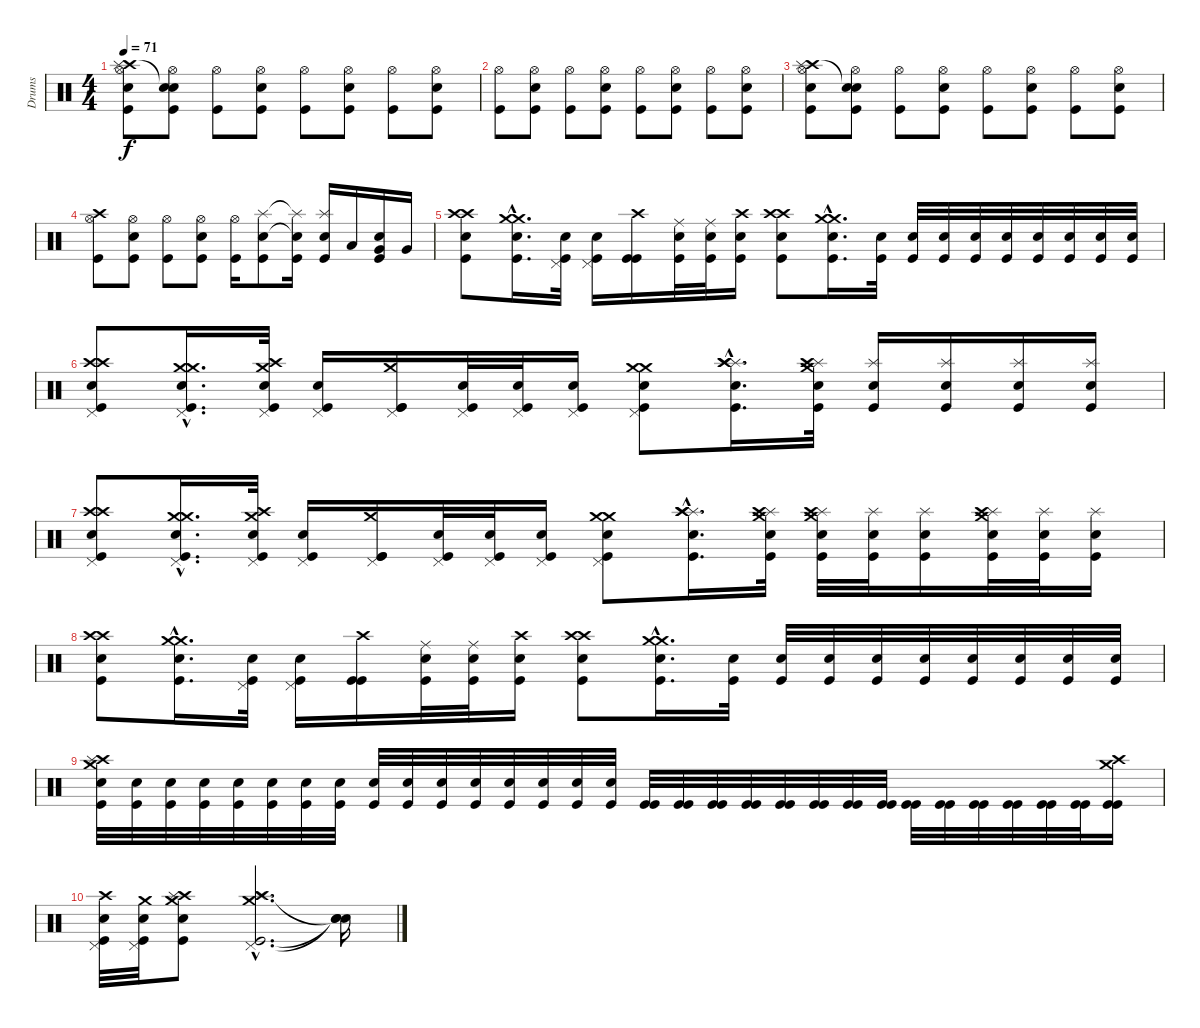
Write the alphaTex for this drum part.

\track ("Drums" "Drums") {instrument percussion}
\staff {score}
\articulation defaults
\ts (4 4)
\tempo 71
\clef neutral
\ks c
("Snare (hit) 2" "Hi-Hat (open)" "Kick (hit)" "Crash high (hit)" "Splash (hit)").8{dy f} ("Snare (hit) 2" "Hi-Hat (open)" "Kick (hit)" "Snare (hit)"{t}).8 ("Hi-Hat (open)" "Kick (hit)").8 ("Electric Snare (hit)" "Hi-Hat (open)" "Kick (hit)").8 ("Hi-Hat (open)" "Kick (hit)").8 ("Snare (hit) 2" "Hi-Hat (open)" "Kick (hit)").8 ("Hi-Hat (open)" "Kick (hit)").8 ("Electric Snare (hit)" "Hi-Hat (open)" "Kick (hit)").8 |
("Hi-Hat (open)" "Kick (hit)").8 ("Snare (hit) 2" "Hi-Hat (open)" "Kick (hit)").8 ("Hi-Hat (open)" "Kick (hit)").8 ("Electric Snare (hit)" "Hi-Hat (open)" "Kick (hit)").8 ("Hi-Hat (open)" "Kick (hit)").8 ("Snare (hit) 2" "Hi-Hat (open)" "Kick (hit)").8 ("Hi-Hat (open)" "Kick (hit)").8 ("Electric Snare (hit)" "Hi-Hat (open)" "Kick (hit)").8 |
("Snare (hit) 2" "Hi-Hat (open)" "Kick (hit)" "Crash high (hit)" "Splash (hit)").8 ("Snare (hit) 2" "Hi-Hat (open)" "Kick (hit)" "Snare (hit)"{t}).8 ("Hi-Hat (open)" "Kick (hit)").8 ("Electric Snare (hit)" "Hi-Hat (open)" "Kick (hit)").8 ("Hi-Hat (open)" "Kick (hit)").8 ("Snare (hit) 2" "Hi-Hat (open)" "Kick (hit)").8 ("Hi-Hat (open)" "Kick (hit)").8 ("Electric Snare (hit)" "Hi-Hat (open)" "Kick (hit)").8 |
("Hi-Hat (open)" "Kick (hit)" "Crash high (hit)").8 ("Snare (hit) 2" "Hi-Hat (open)" "Kick (hit)").8 ("Hi-Hat (open)" "Kick (hit)").8 ("Electric Snare (hit)" "Hi-Hat (open)" "Kick (hit)").8 ("Hi-Hat (open)" "Kick (hit)").16 ("Snare (hit) 2" "Splash (hit)" "Kick (hit)").8 ("Snare (hit) 2"{t} "Splash (hit)"{t} "Kick (hit)").16 ("Electric Snare (hit)" "Splash (hit)" "Kick (hit)").16 "Low Floor Tom (hit)".16 ("Electric Snare (hit)" "Kick (hit)" "Very Low Tom (hit)").16 "Very Low Tom (hit)".16 |
("Electric Snare (hit)" "Kick (hit)" "Crash high (hit)" "Crash high (hit)").8 ("Electric Snare (hit)"{hac} "Kick (hit)"{hac} "Crash medium (hit)"{hac} "Crash medium (hit)"{hac}).16{d} ("Electric Snare (hit)" "Kick (hit)" "Pedal Hi-Hat (hit)").32 ("Electric Snare (hit)" "Kick (hit)" "Pedal Hi-Hat (hit)").16 ("Kick (hit)" "Kick (hit)" "Crash high (hit)").16 ("Electric Snare (hit)" "Kick (hit)" "Ride (middle)").32 ("Electric Snare (hit)" "Kick (hit)" "Ride (middle)").32 ("Electric Snare (hit)" "Kick (hit)" "Crash high (hit)").16 ("Electric Snare (hit)" "Kick (hit)" "Crash high (hit)" "Crash high (hit)").8 ("Electric Snare (hit)"{hac} "Kick (hit)"{hac} "Crash medium (hit)"{hac} "Crash medium (hit)"{hac}).16{d} ("Electric Snare (hit)" "Kick (hit)").32 ("Electric Snare (hit)" "Kick (hit)").32 ("Electric Snare (hit)" "Kick (hit)").32 ("Electric Snare (hit)" "Kick (hit)").32 ("Electric Snare (hit)" "Kick (hit)").32 ("Electric Snare (hit)" "Kick (hit)").32 ("Electric Snare (hit)" "Kick (hit)").32 ("Electric Snare (hit)" "Kick (hit)").32 ("Electric Snare (hit)" "Kick (hit)").32 |
("Electric Snare (hit)" "Kick (hit)" "Pedal Hi-Hat (hit)" "Crash high (hit)" "Crash high (hit)").8 ("Electric Snare (hit)"{hac} "Kick (hit)"{hac} "Pedal Hi-Hat (hit)"{hac} "Crash medium (hit)"{hac} "Crash medium (hit)"{hac}).16{d} ("Electric Snare (hit)" "Kick (hit)" "Pedal Hi-Hat (hit)" "Crash high (hit)" "Crash medium (hit)").32 ("Electric Snare (hit)" "Kick (hit)" "Pedal Hi-Hat (hit)").16 ("Kick (hit)" "Kick (hit)" "Pedal Hi-Hat (hit)" "Crash medium (hit)").16 ("Electric Snare (hit)" "Kick (hit)" "Pedal Hi-Hat (hit)").32 ("Electric Snare (hit)" "Kick (hit)" "Pedal Hi-Hat (hit)").32 ("Electric Snare (hit)" "Kick (hit)" "Pedal Hi-Hat (hit)").16 ("Electric Snare (hit)" "Kick (hit)" "Pedal Hi-Hat (hit)" "Crash medium (hit)" "Crash medium (hit)").8 ("Electric Snare (hit)"{hac} "Kick (hit)"{hac} "Splash (hit)"{hac} "Crash high (hit)"{hac} "Crash high (hit)"{hac}).16{d} ("Electric Snare (hit)" "Kick (hit)" "Crash medium (hit)" "Splash (hit)" "Crash high (hit)").32 ("Electric Snare (hit)" "Kick (hit)" "Splash (hit)").16 ("Electric Snare (hit)" "Kick (hit)" "Splash (hit)").16 ("Electric Snare (hit)" "Kick (hit)" "Splash (hit)").16 ("Electric Snare (hit)" "Kick (hit)" "Splash (hit)").16 |
("Electric Snare (hit)" "Kick (hit)" "Pedal Hi-Hat (hit)" "Crash high (hit)" "Crash high (hit)").8 ("Electric Snare (hit)"{hac} "Kick (hit)"{hac} "Pedal Hi-Hat (hit)"{hac} "Crash medium (hit)"{hac} "Crash medium (hit)"{hac}).16{d} ("Electric Snare (hit)" "Kick (hit)" "Pedal Hi-Hat (hit)" "Crash high (hit)" "Crash medium (hit)").32 ("Electric Snare (hit)" "Kick (hit)" "Pedal Hi-Hat (hit)").16 ("Kick (hit)" "Kick (hit)" "Pedal Hi-Hat (hit)" "Crash medium (hit)").16 ("Electric Snare (hit)" "Kick (hit)" "Pedal Hi-Hat (hit)").32 ("Electric Snare (hit)" "Kick (hit)" "Pedal Hi-Hat (hit)").32 ("Electric Snare (hit)" "Kick (hit)" "Pedal Hi-Hat (hit)").16 ("Electric Snare (hit)" "Kick (hit)" "Pedal Hi-Hat (hit)" "Crash medium (hit)" "Crash medium (hit)").8 ("Electric Snare (hit)"{hac} "Kick (hit)"{hac} "Splash (hit)"{hac} "Crash high (hit)"{hac} "Crash high (hit)"{hac}).16{d} ("Electric Snare (hit)" "Kick (hit)" "Crash medium (hit)" "Splash (hit)" "Crash high (hit)").32 ("Electric Snare (hit)" "Kick (hit)" "Splash (hit)" "Crash high (hit)" "Crash medium (hit)").32 ("Electric Snare (hit)" "Kick (hit)" "Splash (hit)").32 ("Electric Snare (hit)" "Kick (hit)" "Splash (hit)").16 ("Electric Snare (hit)" "Kick (hit)" "Splash (hit)" "Crash high (hit)" "Crash medium (hit)").32 ("Electric Snare (hit)" "Kick (hit)" "Splash (hit)").32 ("Electric Snare (hit)" "Kick (hit)" "Splash (hit)").16 |
("Electric Snare (hit)" "Kick (hit)" "Crash high (hit)" "Crash high (hit)").8 ("Electric Snare (hit)"{hac} "Kick (hit)"{hac} "Crash medium (hit)"{hac} "Crash medium (hit)"{hac}).16{d} ("Electric Snare (hit)" "Kick (hit)" "Pedal Hi-Hat (hit)").32 ("Electric Snare (hit)" "Kick (hit)" "Pedal Hi-Hat (hit)").16 ("Kick (hit)" "Kick (hit)" "Crash high (hit)").16 ("Electric Snare (hit)" "Kick (hit)" "Ride (middle)").32 ("Electric Snare (hit)" "Kick (hit)" "Ride (middle)").32 ("Electric Snare (hit)" "Kick (hit)" "Crash high (hit)").16 ("Electric Snare (hit)" "Kick (hit)" "Crash high (hit)" "Crash high (hit)").8 ("Electric Snare (hit)"{hac} "Kick (hit)"{hac} "Crash medium (hit)"{hac} "Crash medium (hit)"{hac}).16{d} ("Electric Snare (hit)" "Kick (hit)").32 ("Electric Snare (hit)" "Kick (hit)").32 ("Electric Snare (hit)" "Kick (hit)").32 ("Electric Snare (hit)" "Kick (hit)").32 ("Electric Snare (hit)" "Kick (hit)").32 ("Electric Snare (hit)" "Kick (hit)").32 ("Electric Snare (hit)" "Kick (hit)").32 ("Electric Snare (hit)" "Kick (hit)").32 ("Electric Snare (hit)" "Kick (hit)").32 |
("Electric Snare (hit)" "Kick (hit)" "Crash high (hit)" "Crash medium (hit)" "Splash (hit)").32 ("Snare (hit) 2" "Kick (hit)").32 ("Electric Snare (hit)" "Kick (hit)").32 ("Snare (hit) 2" "Kick (hit)").32 ("Electric Snare (hit)" "Kick (hit)").32 ("Snare (hit) 2" "Kick (hit)").32 ("Electric Snare (hit)" "Kick (hit)").32 ("Snare (hit) 2" "Kick (hit)").32 ("Electric Snare (hit)" "Kick (hit)").32 ("Snare (hit) 2" "Kick (hit)").32 ("Electric Snare (hit)" "Kick (hit)").32 ("Snare (hit) 2" "Kick (hit)").32 ("Electric Snare (hit)" "Kick (hit)").32 ("Snare (hit) 2" "Kick (hit)").32 ("Electric Snare (hit)" "Kick (hit)").32 ("Snare (hit) 2" "Kick (hit)").32 ("Kick (hit)" "Kick (hit)").32 ("Kick (hit)" "Kick (hit)").32 ("Kick (hit)" "Kick (hit)").32 ("Kick (hit)" "Kick (hit)").32 ("Kick (hit)" "Kick (hit)").32 ("Kick (hit)" "Kick (hit)").32 ("Kick (hit)" "Kick (hit)").32 ("Kick (hit)" "Kick (hit)").32 ("Kick (hit)" "Kick (hit)").32 ("Kick (hit)" "Kick (hit)").32 ("Kick (hit)" "Kick (hit)").32 ("Kick (hit)" "Kick (hit)").32 ("Kick (hit)" "Kick (hit)").32 ("Kick (hit)" "Kick (hit)").32 ("Kick (hit)" "Kick (hit)" "Crash high (hit)" "Crash medium (hit)").16 |
("Electric Snare (hit)" "Kick (hit)" "Pedal Hi-Hat (hit)" "Crash high (hit)").32 ("Electric Snare (hit)" "Kick (hit)" "Pedal Hi-Hat (hit)" "Crash medium (hit)").32 ("Electric Snare (hit)" "Kick (hit)" "Crash high (hit)" "Crash medium (hit)" "Splash (hit)").8 ("Kick (hit)"{hac} "Pedal Hi-Hat (hit)"{hac} "Splash (hit)"{hac} "Crash high (hit)"{hac} "Crash medium (hit)"{hac}).2{d} ("Snare (hit)"{t} "Snare (hit)"{t} "Snare (hit)"{t}).16
